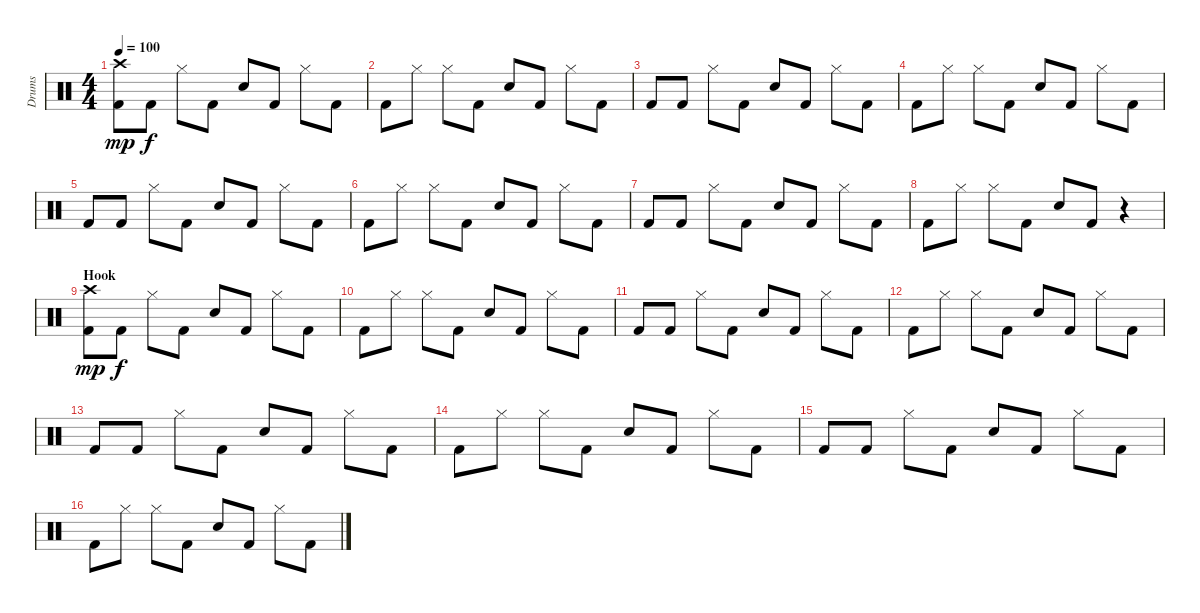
\track ("Drums" "Drums") {instrument percussion}
\staff {score}
\articulation defaults
\ts (4 4)
\tempo 100
\clef neutral
\ks c
("Crash high (hit)" "Kick (hit) 2").8{dy mp} "Kick (hit) 2".8{dy f} "Hi-Hat (closed)".8 "Kick (hit) 2".8 "Snare (hit) 2".8 "Kick (hit) 2".8 "Hi-Hat (closed)".8 "Kick (hit) 2".8 |
"Kick (hit) 2".8 "Hi-Hat (closed)".8 "Hi-Hat (closed)".8 "Kick (hit) 2".8 "Snare (hit) 2".8 "Kick (hit) 2".8 "Hi-Hat (closed)".8 "Kick (hit) 2".8 |
"Kick (hit) 2".8 "Kick (hit) 2".8 "Hi-Hat (closed)".8 "Kick (hit) 2".8 "Snare (hit) 2".8 "Kick (hit) 2".8 "Hi-Hat (closed)".8 "Kick (hit) 2".8 |
"Kick (hit) 2".8 "Hi-Hat (closed)".8 "Hi-Hat (closed)".8 "Kick (hit) 2".8 "Snare (hit) 2".8 "Kick (hit) 2".8 "Hi-Hat (closed)".8 "Kick (hit) 2".8 |
"Kick (hit) 2".8 "Kick (hit) 2".8 "Hi-Hat (closed)".8 "Kick (hit) 2".8 "Snare (hit) 2".8 "Kick (hit) 2".8 "Hi-Hat (closed)".8 "Kick (hit) 2".8 |
"Kick (hit) 2".8 "Hi-Hat (closed)".8 "Hi-Hat (closed)".8 "Kick (hit) 2".8 "Snare (hit) 2".8 "Kick (hit) 2".8 "Hi-Hat (closed)".8 "Kick (hit) 2".8 |
"Kick (hit) 2".8 "Kick (hit) 2".8 "Hi-Hat (closed)".8 "Kick (hit) 2".8 "Snare (hit) 2".8 "Kick (hit) 2".8 "Hi-Hat (closed)".8 "Kick (hit) 2".8 |
"Kick (hit) 2".8 "Hi-Hat (closed)".8 "Hi-Hat (closed)".8 "Kick (hit) 2".8 "Snare (hit) 2".8 "Kick (hit) 2".8 r.4 |
\section ("" "Hook")
("Crash high (hit)" "Kick (hit) 2").8{dy mp} "Kick (hit) 2".8{dy f} "Hi-Hat (closed)".8 "Kick (hit) 2".8 "Snare (hit) 2".8 "Kick (hit) 2".8 "Hi-Hat (closed)".8 "Kick (hit) 2".8 |
"Kick (hit) 2".8 "Hi-Hat (closed)".8 "Hi-Hat (closed)".8 "Kick (hit) 2".8 "Snare (hit) 2".8 "Kick (hit) 2".8 "Hi-Hat (closed)".8 "Kick (hit) 2".8 |
"Kick (hit) 2".8 "Kick (hit) 2".8 "Hi-Hat (closed)".8 "Kick (hit) 2".8 "Snare (hit) 2".8 "Kick (hit) 2".8 "Hi-Hat (closed)".8 "Kick (hit) 2".8 |
"Kick (hit) 2".8 "Hi-Hat (closed)".8 "Hi-Hat (closed)".8 "Kick (hit) 2".8 "Snare (hit) 2".8 "Kick (hit) 2".8 "Hi-Hat (closed)".8 "Kick (hit) 2".8 |
"Kick (hit) 2".8 "Kick (hit) 2".8 "Hi-Hat (closed)".8 "Kick (hit) 2".8 "Snare (hit) 2".8 "Kick (hit) 2".8 "Hi-Hat (closed)".8 "Kick (hit) 2".8 |
"Kick (hit) 2".8 "Hi-Hat (closed)".8 "Hi-Hat (closed)".8 "Kick (hit) 2".8 "Snare (hit) 2".8 "Kick (hit) 2".8 "Hi-Hat (closed)".8 "Kick (hit) 2".8 |
"Kick (hit) 2".8 "Kick (hit) 2".8 "Hi-Hat (closed)".8 "Kick (hit) 2".8 "Snare (hit) 2".8 "Kick (hit) 2".8 "Hi-Hat (closed)".8 "Kick (hit) 2".8 |
"Kick (hit) 2".8 "Hi-Hat (closed)".8 "Hi-Hat (closed)".8 "Kick (hit) 2".8 "Snare (hit) 2".8 "Kick (hit) 2".8 "Hi-Hat (closed)".8 "Kick (hit) 2".8
